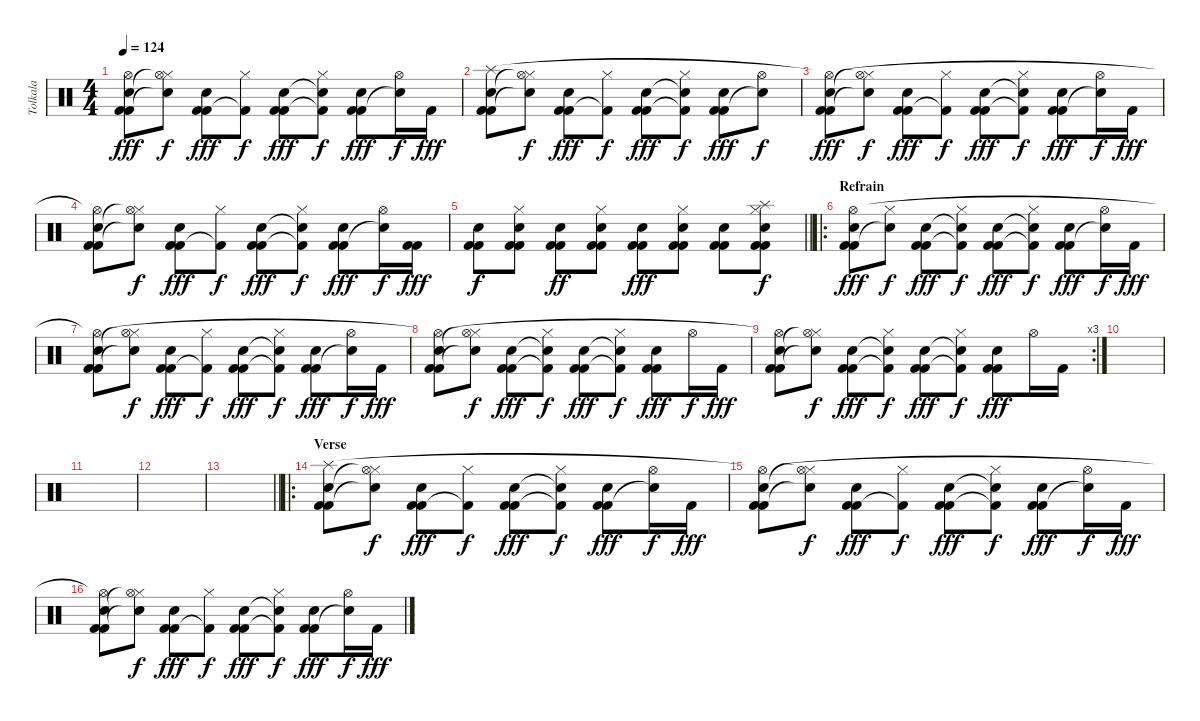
\track ("Tolkala" "Tolkala") {instrument percussion}
\staff {score}
\articulation defaults
\ts (4 4)
\tempo 124
\clef neutral
\ks c
("Kick (hit) 2" "Kick (hit) 2" "Snare (hit) 2" "Hi-Hat (open)"{t}).8{dy fff} ("Hi-Hat (closed)" "Snare (hit) 2"{t} "Hi-Hat (open)"{t}).8{dy f} ("Kick (hit) 2" "Kick (hit) 2" "Snare (hit) 2").8{dy fff} ("Kick (hit) 2"{t} "Hi-Hat (closed)").8{dy f} ("Kick (hit) 2" "Kick (hit) 2" "Snare (hit) 2").8{dy fff} ("Kick (hit) 2"{t} "Hi-Hat (closed)" "Snare (hit) 2"{t}).8{dy f} ("Kick (hit) 2" "Kick (hit) 2" "Snare (hit) 2").8{dy fff} ("Snare (hit) 2"{t} "Hi-Hat (open)").16{dy f} "Kick (hit) 2".16{dy fff} |
("Kick (hit) 2" "Kick (hit) 2" "Snare (hit) 2" "Splash (hit)").8 ("Hi-Hat (closed)" "Snare (hit) 2"{t} "Hi-Hat (open)"{t}).8{dy f} ("Kick (hit) 2" "Kick (hit) 2" "Snare (hit) 2").8{dy fff} ("Kick (hit) 2"{t} "Hi-Hat (closed)").8{dy f} ("Kick (hit) 2" "Kick (hit) 2" "Snare (hit) 2").8{dy fff} ("Kick (hit) 2"{t} "Hi-Hat (closed)" "Snare (hit) 2"{t}).8{dy f} ("Kick (hit) 2" "Kick (hit) 2" "Snare (hit) 2").8{dy fff} ("Snare (hit) 2"{t} "Hi-Hat (open)").8{dy f} |
("Kick (hit) 2" "Kick (hit) 2" "Snare (hit) 2" "Hi-Hat (open)"{t}).8{dy fff} ("Hi-Hat (closed)" "Snare (hit) 2"{t} "Hi-Hat (open)"{t}).8{dy f} ("Kick (hit) 2" "Kick (hit) 2" "Snare (hit) 2").8{dy fff} ("Kick (hit) 2"{t} "Hi-Hat (closed)").8{dy f} ("Kick (hit) 2" "Kick (hit) 2" "Snare (hit) 2").8{dy fff} ("Kick (hit) 2"{t} "Hi-Hat (closed)" "Snare (hit) 2"{t}).8{dy f} ("Kick (hit) 2" "Kick (hit) 2" "Snare (hit) 2").8{dy fff} ("Snare (hit) 2"{t} "Hi-Hat (open)").16{dy f} "Kick (hit) 2".16{dy fff} |
("Kick (hit) 2" "Kick (hit) 2" "Snare (hit) 2" "Hi-Hat (open)"{t}).8 ("Hi-Hat (closed)" "Snare (hit) 2"{t} "Hi-Hat (open)"{t}).8{dy f} ("Kick (hit) 2" "Kick (hit) 2" "Snare (hit) 2").8{dy fff} ("Kick (hit) 2"{t} "Hi-Hat (closed)").8{dy f} ("Kick (hit) 2" "Kick (hit) 2" "Snare (hit) 2").8{dy fff} ("Kick (hit) 2"{t} "Hi-Hat (closed)" "Snare (hit) 2"{t}).8{dy f} ("Kick (hit) 2" "Kick (hit) 2" "Snare (hit) 2").8{dy fff} ("Snare (hit) 2"{t} "Hi-Hat (open)").16{dy f} ("Kick (hit) 2" "Kick (hit) 2").16{dy fff} |
\barLineRight lightlight
("Kick (hit) 2" "Kick (hit) 2" "Snare (hit) 2").8{dy f} ("Kick (hit) 2" "Kick (hit) 2" "Hi-Hat (closed)" "Snare (hit) 2").8 ("Kick (hit) 2" "Kick (hit) 2" "Snare (hit) 2").8{dy ff} ("Kick (hit) 2" "Kick (hit) 2" "Hi-Hat (closed)" "Snare (hit) 2").8 ("Kick (hit) 2" "Kick (hit) 2" "Snare (hit) 2").8{dy fff} ("Kick (hit) 2" "Kick (hit) 2" "Hi-Hat (closed)" "Snare (hit) 2").8 ("Kick (hit) 2" "Kick (hit) 2" "Snare (hit) 2").8 ("Kick (hit) 2" "Kick (hit) 2" "Hi-Hat (closed)" "Snare (hit) 2" "Splash (hit)").8{dy f} |
\ro
\section ("" "Refrain")
("Kick (hit) 2" "Kick (hit) 2" "Snare (hit) 2" "Hi-Hat (open)").8{dy fff volume 16} ("Hi-Hat (closed)" "Snare (hit) 2"{t}).8{dy f} ("Kick (hit) 2" "Kick (hit) 2" "Snare (hit) 2").8{dy fff} ("Kick (hit) 2"{t} "Hi-Hat (closed)" "Snare (hit) 2"{t}).8{dy f} ("Kick (hit) 2" "Kick (hit) 2" "Snare (hit) 2").8{dy fff} ("Kick (hit) 2"{t} "Hi-Hat (closed)" "Snare (hit) 2"{t}).8{dy f} ("Kick (hit) 2" "Kick (hit) 2" "Snare (hit) 2").8{dy fff} ("Snare (hit) 2"{t} "Hi-Hat (open)").16{dy f} "Kick (hit) 2".16{dy fff} |
("Kick (hit) 2" "Kick (hit) 2" "Snare (hit) 2" "Hi-Hat (open)"{t}).8 ("Hi-Hat (closed)" "Snare (hit) 2"{t} "Hi-Hat (open)"{t}).8{dy f} ("Kick (hit) 2" "Kick (hit) 2" "Snare (hit) 2").8{dy fff} ("Kick (hit) 2"{t} "Hi-Hat (closed)").8{dy f} ("Kick (hit) 2" "Kick (hit) 2" "Snare (hit) 2").8{dy fff} ("Kick (hit) 2"{t} "Hi-Hat (closed)" "Snare (hit) 2"{t}).8{dy f} ("Kick (hit) 2" "Kick (hit) 2" "Snare (hit) 2").8{dy fff} ("Snare (hit) 2"{t} "Hi-Hat (open)").16{dy f} "Kick (hit) 2".16{dy fff} |
("Kick (hit) 2" "Kick (hit) 2" "Snare (hit) 2" "Hi-Hat (open)"{t}).8 ("Hi-Hat (closed)" "Snare (hit) 2"{t} "Hi-Hat (open)"{t}).8{dy f} ("Kick (hit) 2" "Kick (hit) 2" "Snare (hit) 2").8{dy fff} ("Kick (hit) 2"{t} "Hi-Hat (closed)" "Snare (hit) 2"{t}).8{dy f} ("Kick (hit) 2" "Kick (hit) 2" "Snare (hit) 2").8{dy fff} ("Kick (hit) 2"{t} "Hi-Hat (closed)" "Snare (hit) 2"{t}).8{dy f} ("Kick (hit) 2" "Kick (hit) 2" "Snare (hit) 2").8{dy fff} "Hi-Hat (open)".16{dy f} "Kick (hit) 2".16{dy fff} |
\rc 3
("Kick (hit) 2" "Kick (hit) 2" "Snare (hit) 2" "Hi-Hat (open)"{t}).8 ("Hi-Hat (closed)" "Snare (hit) 2"{t} "Hi-Hat (open)"{t}).8{dy f} ("Kick (hit) 2" "Kick (hit) 2" "Snare (hit) 2").8{dy fff} ("Kick (hit) 2"{t} "Hi-Hat (closed)" "Snare (hit) 2"{t}).8{dy f} ("Kick (hit) 2" "Kick (hit) 2" "Snare (hit) 2").8{dy fff} ("Kick (hit) 2"{t} "Hi-Hat (closed)" "Snare (hit) 2"{t}).8{dy f} ("Kick (hit) 2" "Kick (hit) 2" "Snare (hit) 2").8{dy fff} "Hi-Hat (open)".16 "Kick (hit) 2".16 |
|
|
|
\barLineRight lightlight
|
\ro
\section ("" "Verse")
("Kick (hit) 2" "Kick (hit) 2" "Snare (hit) 2" "Splash (hit)").8 ("Hi-Hat (closed)" "Snare (hit) 2"{t} "Hi-Hat (open)"{t}).8{dy f} ("Kick (hit) 2" "Kick (hit) 2" "Snare (hit) 2").8{dy fff} ("Kick (hit) 2"{t} "Hi-Hat (closed)").8{dy f} ("Kick (hit) 2" "Kick (hit) 2" "Snare (hit) 2").8{dy fff} ("Kick (hit) 2"{t} "Hi-Hat (closed)" "Snare (hit) 2"{t}).8{dy f} ("Kick (hit) 2" "Kick (hit) 2" "Snare (hit) 2").8{dy fff} ("Snare (hit) 2"{t} "Hi-Hat (open)").16{dy f} "Kick (hit) 2".16{dy fff} |
("Kick (hit) 2" "Kick (hit) 2" "Snare (hit) 2" "Hi-Hat (open)"{t}).8 ("Hi-Hat (closed)" "Snare (hit) 2"{t} "Hi-Hat (open)"{t}).8{dy f} ("Kick (hit) 2" "Kick (hit) 2" "Snare (hit) 2").8{dy fff} ("Kick (hit) 2"{t} "Hi-Hat (closed)").8{dy f} ("Kick (hit) 2" "Kick (hit) 2" "Snare (hit) 2").8{dy fff} ("Kick (hit) 2"{t} "Hi-Hat (closed)" "Snare (hit) 2"{t}).8{dy f} ("Kick (hit) 2" "Kick (hit) 2" "Snare (hit) 2").8{dy fff} ("Snare (hit) 2"{t} "Hi-Hat (open)").16{dy f} "Kick (hit) 2".16{dy fff} |
("Kick (hit) 2" "Kick (hit) 2" "Snare (hit) 2" "Hi-Hat (open)"{t}).8 ("Hi-Hat (closed)" "Snare (hit) 2"{t} "Hi-Hat (open)"{t}).8{dy f} ("Kick (hit) 2" "Kick (hit) 2" "Snare (hit) 2").8{dy fff} ("Kick (hit) 2"{t} "Hi-Hat (closed)").8{dy f} ("Kick (hit) 2" "Kick (hit) 2" "Snare (hit) 2").8{dy fff} ("Kick (hit) 2"{t} "Hi-Hat (closed)" "Snare (hit) 2"{t}).8{dy f} ("Kick (hit) 2" "Kick (hit) 2" "Snare (hit) 2").8{dy fff} ("Snare (hit) 2"{t} "Hi-Hat (open)").16{dy f} "Kick (hit) 2".16{dy fff}
